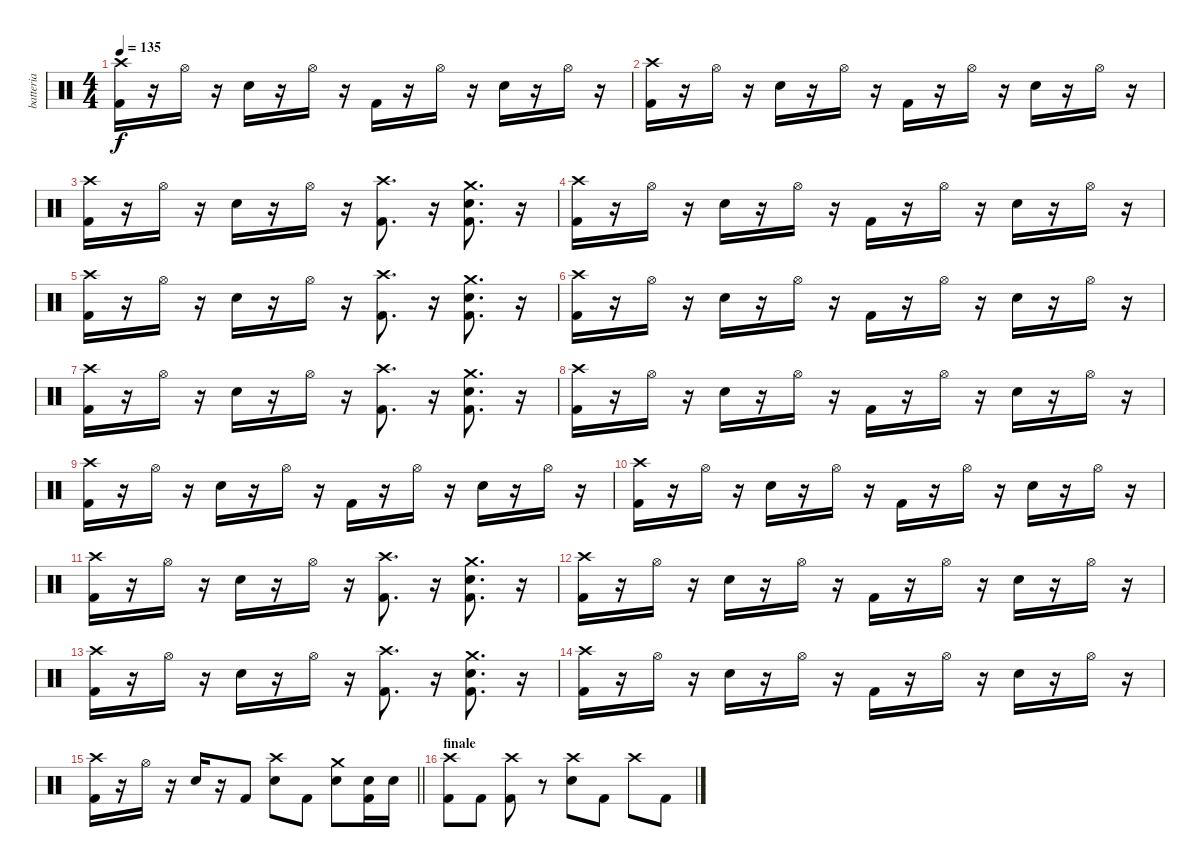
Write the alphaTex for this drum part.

\track ("batteria" "batteria") {instrument percussion}
\staff {score}
\articulation defaults
\ts (4 4)
\tempo 135
\clef neutral
\ks c
("Crash high (hit)" "Kick (hit) 2").16{dy f} r.16 "Hi-Hat (open)".16 r.16 "Electric Snare (hit)".16 r.16 "Hi-Hat (open)".16 r.16 "Kick (hit) 2".16 r.16 "Hi-Hat (open)".16 r.16 "Electric Snare (hit)".16 r.16 "Hi-Hat (open)".16 r.16 |
("Crash high (hit)" "Kick (hit) 2").16 r.16 "Hi-Hat (open)".16 r.16 "Electric Snare (hit)".16 r.16 "Hi-Hat (open)".16 r.16 "Kick (hit) 2".16 r.16 "Hi-Hat (open)".16 r.16 "Electric Snare (hit)".16 r.16 "Hi-Hat (open)".16 r.16 |
("Crash high (hit)" "Kick (hit) 2").16 r.16 "Hi-Hat (open)".16 r.16 "Electric Snare (hit)".16 r.16 "Hi-Hat (open)".16 r.16 ("Crash high (hit)" "Kick (hit) 2").8{d} r.16 ("Crash medium (hit)" "Electric Snare (hit)" "Kick (hit) 2").8{d} r.16 |
("Crash high (hit)" "Kick (hit) 2").16 r.16 "Hi-Hat (open)".16 r.16 "Electric Snare (hit)".16 r.16 "Hi-Hat (open)".16 r.16 "Kick (hit) 2".16 r.16 "Hi-Hat (open)".16 r.16 "Electric Snare (hit)".16 r.16 "Hi-Hat (open)".16 r.16 |
("Crash high (hit)" "Kick (hit) 2").16 r.16 "Hi-Hat (open)".16 r.16 "Electric Snare (hit)".16 r.16 "Hi-Hat (open)".16 r.16 ("Crash high (hit)" "Kick (hit) 2").8{d} r.16 ("Crash medium (hit)" "Electric Snare (hit)" "Kick (hit) 2").8{d} r.16 |
("Crash high (hit)" "Kick (hit) 2").16 r.16 "Hi-Hat (open)".16 r.16 "Electric Snare (hit)".16 r.16 "Hi-Hat (open)".16 r.16 "Kick (hit) 2".16 r.16 "Hi-Hat (open)".16 r.16 "Electric Snare (hit)".16 r.16 "Hi-Hat (open)".16 r.16 |
("Crash high (hit)" "Kick (hit) 2").16 r.16 "Hi-Hat (open)".16 r.16 "Electric Snare (hit)".16 r.16 "Hi-Hat (open)".16 r.16 ("Crash high (hit)" "Kick (hit) 2").8{d} r.16 ("Crash medium (hit)" "Electric Snare (hit)" "Kick (hit) 2").8{d} r.16 |
("Crash high (hit)" "Kick (hit) 2").16 r.16 "Hi-Hat (open)".16 r.16 "Electric Snare (hit)".16 r.16 "Hi-Hat (open)".16 r.16 "Kick (hit) 2".16 r.16 "Hi-Hat (open)".16 r.16 "Electric Snare (hit)".16 r.16 "Hi-Hat (open)".16 r.16 |
("Crash high (hit)" "Kick (hit) 2").16 r.16 "Hi-Hat (open)".16 r.16 "Electric Snare (hit)".16 r.16 "Hi-Hat (open)".16 r.16 "Kick (hit) 2".16 r.16 "Hi-Hat (open)".16 r.16 "Electric Snare (hit)".16 r.16 "Hi-Hat (open)".16 r.16 |
("Crash high (hit)" "Kick (hit) 2").16 r.16 "Hi-Hat (open)".16 r.16 "Electric Snare (hit)".16 r.16 "Hi-Hat (open)".16 r.16 "Kick (hit) 2".16 r.16 "Hi-Hat (open)".16 r.16 "Electric Snare (hit)".16 r.16 "Hi-Hat (open)".16 r.16 |
("Crash high (hit)" "Kick (hit) 2").16 r.16 "Hi-Hat (open)".16 r.16 "Electric Snare (hit)".16 r.16 "Hi-Hat (open)".16 r.16 ("Crash high (hit)" "Kick (hit) 2").8{d} r.16 ("Crash medium (hit)" "Electric Snare (hit)" "Kick (hit) 2").8{d} r.16 |
("Crash high (hit)" "Kick (hit) 2").16 r.16 "Hi-Hat (open)".16 r.16 "Electric Snare (hit)".16 r.16 "Hi-Hat (open)".16 r.16 "Kick (hit) 2".16 r.16 "Hi-Hat (open)".16 r.16 "Electric Snare (hit)".16 r.16 "Hi-Hat (open)".16 r.16 |
("Crash high (hit)" "Kick (hit) 2").16 r.16 "Hi-Hat (open)".16 r.16 "Electric Snare (hit)".16 r.16 "Hi-Hat (open)".16 r.16 ("Crash high (hit)" "Kick (hit) 2").8{d} r.16 ("Crash medium (hit)" "Electric Snare (hit)" "Kick (hit) 2").8{d} r.16 |
("Crash high (hit)" "Kick (hit) 2").16 r.16 "Hi-Hat (open)".16 r.16 "Electric Snare (hit)".16 r.16 "Hi-Hat (open)".16 r.16 "Kick (hit) 2".16 r.16 "Hi-Hat (open)".16 r.16 "Electric Snare (hit)".16 r.16 "Hi-Hat (open)".16 r.16 |
\barLineRight lightlight
("Crash high (hit)" "Kick (hit) 2").16 r.16 "Hi-Hat (open)".16 r.16 "Electric Snare (hit)".16 r.16 "Kick (hit) 2".8 ("Crash high (hit)" "Electric Snare (hit)").8 "Kick (hit) 2".8 ("Crash medium (hit)" "Electric Snare (hit)").8 ("Electric Snare (hit)" "Kick (hit) 2").16 "Electric Snare (hit)".16 |
\section ("" "finale")
("Crash high (hit)" "Kick (hit) 2").8 "Kick (hit) 2".8 ("Crash high (hit)" "Kick (hit) 2").8 r.8 ("Crash high (hit)" "Electric Snare (hit)").8 "Kick (hit) 2".8 "Crash high (hit)".8 "Kick (hit) 2".8
